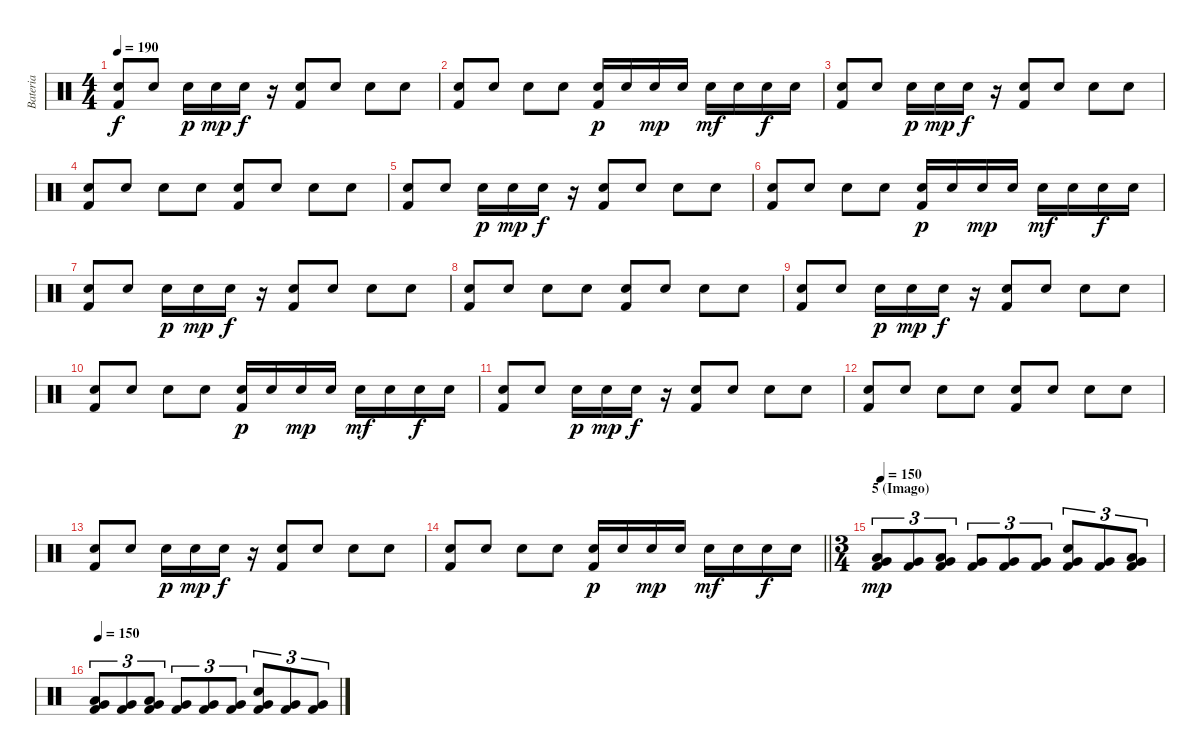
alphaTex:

\track ("Bateria" "Bateria") {instrument percussion}
\staff {score}
\articulation defaults
\ts (4 4)
\tempo 190
\clef neutral
\ks c
("Electric Snare (hit)" "Kick (hit) 2").8{dy f} "Snare (hit)".8 "Electric Snare (hit)".16{dy p} "Electric Snare (hit)".16{dy mp} "Electric Snare (hit)".16{dy f} r.16 ("Electric Snare (hit)" "Kick (hit) 2").8 "Snare (hit)".8 "Electric Snare (hit)".8 "Snare (hit)".8 |
("Electric Snare (hit)" "Kick (hit) 2").8 "Electric Snare (hit)".8 "Electric Snare (hit)".8 "Snare (hit)".8 ("Electric Snare (hit)" "Kick (hit) 2").16{dy p} "Electric Snare (hit)".16 "Electric Snare (hit)".16{dy mp} "Electric Snare (hit)".16 "Electric Snare (hit)".16{dy mf} "Electric Snare (hit)".16 "Electric Snare (hit)".16{dy f} "Electric Snare (hit)".16 |
("Electric Snare (hit)" "Kick (hit) 2").8 "Snare (hit)".8 "Electric Snare (hit)".16{dy p} "Electric Snare (hit)".16{dy mp} "Electric Snare (hit)".16{dy f} r.16 ("Electric Snare (hit)" "Kick (hit) 2").8 "Snare (hit)".8 "Electric Snare (hit)".8 "Snare (hit)".8 |
("Electric Snare (hit)" "Kick (hit) 2").8 "Electric Snare (hit)".8 "Electric Snare (hit)".8 "Snare (hit)".8 ("Electric Snare (hit)" "Kick (hit) 2").8 "Snare (hit)".8 "Electric Snare (hit)".8 "Electric Snare (hit)".8 |
("Electric Snare (hit)" "Kick (hit) 2").8 "Snare (hit)".8 "Electric Snare (hit)".16{dy p} "Electric Snare (hit)".16{dy mp} "Electric Snare (hit)".16{dy f} r.16 ("Electric Snare (hit)" "Kick (hit) 2").8 "Snare (hit)".8 "Electric Snare (hit)".8 "Snare (hit)".8 |
("Electric Snare (hit)" "Kick (hit) 2").8 "Electric Snare (hit)".8 "Electric Snare (hit)".8 "Snare (hit)".8 ("Electric Snare (hit)" "Kick (hit) 2").16{dy p} "Electric Snare (hit)".16 "Electric Snare (hit)".16{dy mp} "Electric Snare (hit)".16 "Electric Snare (hit)".16{dy mf} "Electric Snare (hit)".16 "Electric Snare (hit)".16{dy f} "Electric Snare (hit)".16 |
("Electric Snare (hit)" "Kick (hit) 2").8 "Snare (hit)".8 "Electric Snare (hit)".16{dy p} "Electric Snare (hit)".16{dy mp} "Electric Snare (hit)".16{dy f} r.16 ("Electric Snare (hit)" "Kick (hit) 2").8 "Snare (hit)".8 "Electric Snare (hit)".8 "Snare (hit)".8 |
("Electric Snare (hit)" "Kick (hit) 2").8 "Electric Snare (hit)".8 "Electric Snare (hit)".8 "Snare (hit)".8 ("Electric Snare (hit)" "Kick (hit) 2").8 "Snare (hit)".8 "Electric Snare (hit)".8 "Electric Snare (hit)".8 |
("Electric Snare (hit)" "Kick (hit) 2").8 "Snare (hit)".8 "Electric Snare (hit)".16{dy p} "Electric Snare (hit)".16{dy mp} "Electric Snare (hit)".16{dy f} r.16 ("Electric Snare (hit)" "Kick (hit) 2").8 "Snare (hit)".8 "Electric Snare (hit)".8 "Snare (hit)".8 |
("Electric Snare (hit)" "Kick (hit) 2").8 "Electric Snare (hit)".8 "Electric Snare (hit)".8 "Snare (hit)".8 ("Electric Snare (hit)" "Kick (hit) 2").16{dy p} "Electric Snare (hit)".16 "Electric Snare (hit)".16{dy mp} "Electric Snare (hit)".16 "Electric Snare (hit)".16{dy mf} "Electric Snare (hit)".16 "Electric Snare (hit)".16{dy f} "Electric Snare (hit)".16 |
("Electric Snare (hit)" "Kick (hit) 2").8 "Snare (hit)".8 "Electric Snare (hit)".16{dy p} "Electric Snare (hit)".16{dy mp} "Electric Snare (hit)".16{dy f} r.16 ("Electric Snare (hit)" "Kick (hit) 2").8 "Snare (hit)".8 "Electric Snare (hit)".8 "Snare (hit)".8 |
("Electric Snare (hit)" "Kick (hit) 2").8 "Electric Snare (hit)".8 "Electric Snare (hit)".8 "Snare (hit)".8 ("Electric Snare (hit)" "Kick (hit) 2").8 "Snare (hit)".8 "Electric Snare (hit)".8 "Electric Snare (hit)".8 |
("Electric Snare (hit)" "Kick (hit) 2").8 "Snare (hit)".8 "Electric Snare (hit)".16{dy p} "Electric Snare (hit)".16{dy mp} "Electric Snare (hit)".16{dy f} r.16 ("Electric Snare (hit)" "Kick (hit) 2").8 "Snare (hit)".8 "Electric Snare (hit)".8 "Snare (hit)".8 |
\barLineRight lightlight
("Electric Snare (hit)" "Kick (hit) 2").8 "Electric Snare (hit)".8 "Electric Snare (hit)".8 "Snare (hit)".8 ("Electric Snare (hit)" "Kick (hit) 2").16{dy p} "Electric Snare (hit)".16 "Electric Snare (hit)".16{dy mp} "Electric Snare (hit)".16 "Electric Snare (hit)".16{dy mf} "Electric Snare (hit)".16 "Electric Snare (hit)".16{dy f} "Electric Snare (hit)".16 |
\ts (3 4)
\section ("" "5 (Imago)")
\tempo 150
("Low Floor Tom (hit)" "Very Low Tom (hit)" "Kick (hit) 2").8{tu (3 2) dy mp} ("Very Low Tom (hit)" "Kick (hit) 2").8{tu (3 2)} ("Low Floor Tom (hit)" "Very Low Tom (hit)" "Kick (hit) 2").8{tu (3 2)} ("Very Low Tom (hit)" "Kick (hit) 2").8{tu (3 2)} ("Very Low Tom (hit)" "Kick (hit) 2").8{tu (3 2)} ("Very Low Tom (hit)" "Kick (hit) 2").8{tu (3 2)} ("Electric Snare (hit)" "Very Low Tom (hit)" "Kick (hit) 2").8{tu (3 2)} ("Very Low Tom (hit)" "Kick (hit) 2").8{tu (3 2)} ("Low Floor Tom (hit)" "Very Low Tom (hit)" "Kick (hit) 2").8{tu (3 2)} |
\tempo 150
("Low Floor Tom (hit)" "Very Low Tom (hit)" "Kick (hit) 2").8{tu (3 2)} ("Very Low Tom (hit)" "Kick (hit) 2").8{tu (3 2)} ("Low Floor Tom (hit)" "Very Low Tom (hit)" "Kick (hit) 2").8{tu (3 2)} ("Very Low Tom (hit)" "Kick (hit) 2").8{tu (3 2)} ("Very Low Tom (hit)" "Kick (hit) 2").8{tu (3 2)} ("Very Low Tom (hit)" "Kick (hit) 2").8{tu (3 2)} ("Electric Snare (hit)" "Very Low Tom (hit)" "Kick (hit) 2").8{tu (3 2)} ("Very Low Tom (hit)" "Kick (hit) 2").8{tu (3 2)} ("Very Low Tom (hit)" "Kick (hit) 2").8{tu (3 2)}
